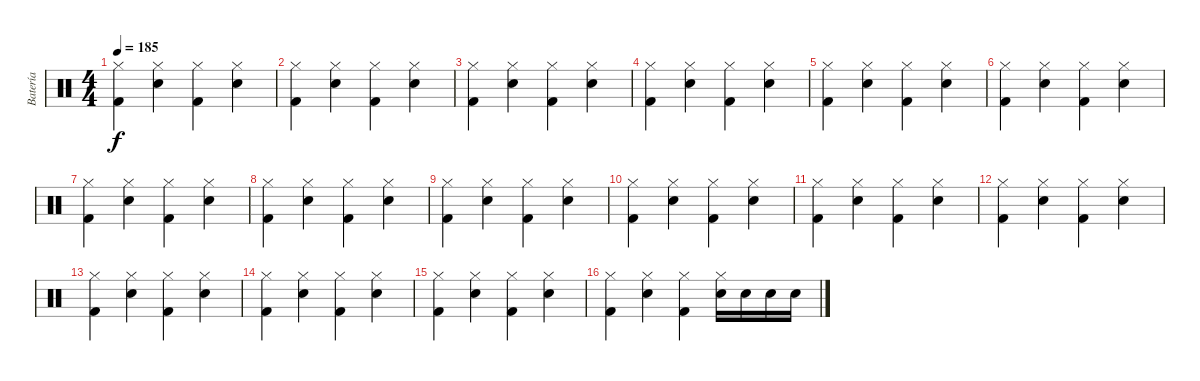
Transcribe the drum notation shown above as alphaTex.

\track ("Batería" "Batería") {instrument percussion}
\staff {score}
\articulation defaults
\ts (4 4)
\tempo 185
\clef neutral
\ks c
("Hi-Hat (closed)" "Kick (hit) 2").4{dy f} ("Hi-Hat (closed)" "Snare (hit) 2").4 ("Hi-Hat (closed)" "Kick (hit) 2").4 ("Hi-Hat (closed)" "Snare (hit) 2").4 |
("Hi-Hat (closed)" "Kick (hit) 2").4 ("Hi-Hat (closed)" "Snare (hit) 2").4 ("Hi-Hat (closed)" "Kick (hit) 2").4 ("Hi-Hat (closed)" "Snare (hit) 2").4 |
("Hi-Hat (closed)" "Kick (hit) 2").4 ("Hi-Hat (closed)" "Snare (hit) 2").4 ("Hi-Hat (closed)" "Kick (hit) 2").4 ("Hi-Hat (closed)" "Snare (hit) 2").4 |
("Hi-Hat (closed)" "Kick (hit) 2").4 ("Hi-Hat (closed)" "Snare (hit) 2").4 ("Hi-Hat (closed)" "Kick (hit) 2").4 ("Hi-Hat (closed)" "Snare (hit) 2").4 |
("Hi-Hat (closed)" "Kick (hit) 2").4 ("Hi-Hat (closed)" "Snare (hit) 2").4 ("Hi-Hat (closed)" "Kick (hit) 2").4 ("Hi-Hat (closed)" "Snare (hit) 2").4 |
("Hi-Hat (closed)" "Kick (hit) 2").4 ("Hi-Hat (closed)" "Snare (hit) 2").4 ("Hi-Hat (closed)" "Kick (hit) 2").4 ("Hi-Hat (closed)" "Snare (hit) 2").4 |
("Hi-Hat (closed)" "Kick (hit) 2").4 ("Hi-Hat (closed)" "Snare (hit) 2").4 ("Hi-Hat (closed)" "Kick (hit) 2").4 ("Hi-Hat (closed)" "Snare (hit) 2").4 |
("Hi-Hat (closed)" "Kick (hit) 2").4 ("Hi-Hat (closed)" "Snare (hit) 2").4 ("Hi-Hat (closed)" "Kick (hit) 2").4 ("Hi-Hat (closed)" "Snare (hit) 2").4 |
("Hi-Hat (closed)" "Kick (hit) 2").4 ("Hi-Hat (closed)" "Snare (hit) 2").4 ("Hi-Hat (closed)" "Kick (hit) 2").4 ("Hi-Hat (closed)" "Snare (hit) 2").4 |
("Hi-Hat (closed)" "Kick (hit) 2").4 ("Hi-Hat (closed)" "Snare (hit) 2").4 ("Hi-Hat (closed)" "Kick (hit) 2").4 ("Hi-Hat (closed)" "Snare (hit) 2").4 |
("Hi-Hat (closed)" "Kick (hit) 2").4 ("Hi-Hat (closed)" "Snare (hit) 2").4 ("Hi-Hat (closed)" "Kick (hit) 2").4 ("Hi-Hat (closed)" "Snare (hit) 2").4 |
("Hi-Hat (closed)" "Kick (hit) 2").4 ("Hi-Hat (closed)" "Snare (hit) 2").4 ("Hi-Hat (closed)" "Kick (hit) 2").4 ("Hi-Hat (closed)" "Snare (hit) 2").4 |
("Hi-Hat (closed)" "Kick (hit) 2").4 ("Hi-Hat (closed)" "Snare (hit) 2").4 ("Hi-Hat (closed)" "Kick (hit) 2").4 ("Hi-Hat (closed)" "Snare (hit) 2").4 |
("Hi-Hat (closed)" "Kick (hit) 2").4 ("Hi-Hat (closed)" "Snare (hit) 2").4 ("Hi-Hat (closed)" "Kick (hit) 2").4 ("Hi-Hat (closed)" "Snare (hit) 2").4 |
("Hi-Hat (closed)" "Kick (hit) 2").4 ("Hi-Hat (closed)" "Snare (hit) 2").4 ("Hi-Hat (closed)" "Kick (hit) 2").4 ("Hi-Hat (closed)" "Snare (hit) 2").4 |
("Hi-Hat (closed)" "Kick (hit) 2").4 ("Hi-Hat (closed)" "Snare (hit) 2").4 ("Hi-Hat (closed)" "Kick (hit) 2").4 ("Snare (hit) 2" "Hi-Hat (closed)").16 "Snare (hit) 2".16 "Snare (hit) 2".16 "Snare (hit) 2".16
